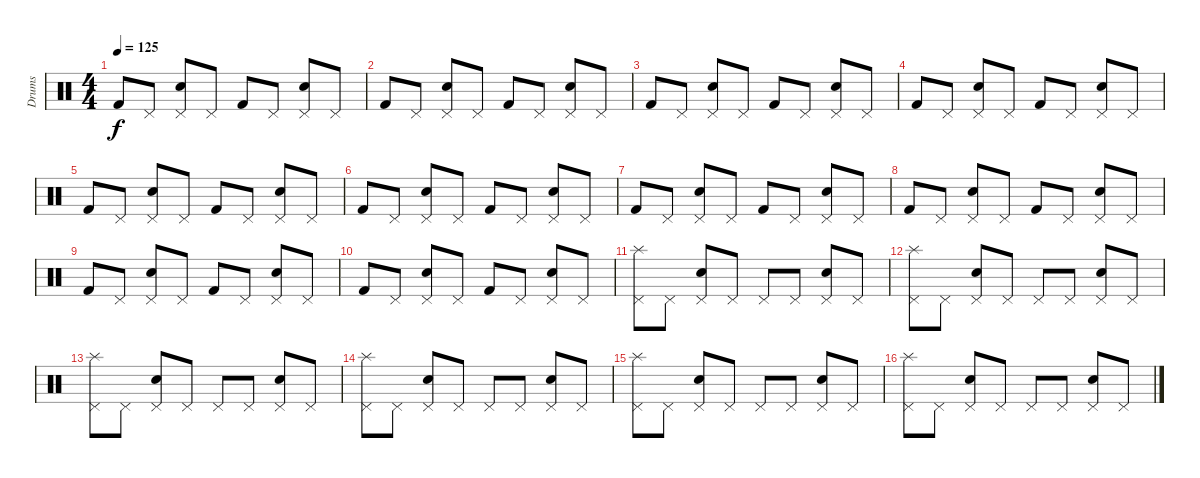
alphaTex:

\track ("Drums" "Drums") {instrument percussion}
\staff {score}
\articulation defaults
\ts (4 4)
\tempo 125
\clef neutral
\ks c "Kick (hit) 2".8{dy f} "Pedal Hi-Hat (hit)".8
("Pedal Hi-Hat (hit)" "Electric Snare (hit)").8 "Pedal Hi-Hat (hit)".8 "Kick (hit) 2".8 "Pedal Hi-Hat (hit)".8 ("Pedal Hi-Hat (hit)" "Electric Snare (hit)").8 "Pedal Hi-Hat (hit)".8 |
"Kick (hit) 2".8 "Pedal Hi-Hat (hit)".8 ("Pedal Hi-Hat (hit)" "Electric Snare (hit)").8 "Pedal Hi-Hat (hit)".8 "Kick (hit) 2".8 "Pedal Hi-Hat (hit)".8 ("Pedal Hi-Hat (hit)" "Electric Snare (hit)").8 "Pedal Hi-Hat (hit)".8 |
"Kick (hit) 2".8 "Pedal Hi-Hat (hit)".8 ("Pedal Hi-Hat (hit)" "Electric Snare (hit)").8 "Pedal Hi-Hat (hit)".8 "Kick (hit) 2".8 "Pedal Hi-Hat (hit)".8 ("Pedal Hi-Hat (hit)" "Electric Snare (hit)").8 "Pedal Hi-Hat (hit)".8 |
"Kick (hit) 2".8 "Pedal Hi-Hat (hit)".8 ("Pedal Hi-Hat (hit)" "Electric Snare (hit)").8 "Pedal Hi-Hat (hit)".8 "Kick (hit) 2".8 "Pedal Hi-Hat (hit)".8 ("Pedal Hi-Hat (hit)" "Electric Snare (hit)").8 "Pedal Hi-Hat (hit)".8 |
"Kick (hit) 2".8 "Pedal Hi-Hat (hit)".8 ("Pedal Hi-Hat (hit)" "Electric Snare (hit)").8 "Pedal Hi-Hat (hit)".8 "Kick (hit) 2".8 "Pedal Hi-Hat (hit)".8 ("Pedal Hi-Hat (hit)" "Electric Snare (hit)").8 "Pedal Hi-Hat (hit)".8 |
"Kick (hit) 2".8 "Pedal Hi-Hat (hit)".8 ("Pedal Hi-Hat (hit)" "Electric Snare (hit)").8 "Pedal Hi-Hat (hit)".8 "Kick (hit) 2".8 "Pedal Hi-Hat (hit)".8 ("Pedal Hi-Hat (hit)" "Electric Snare (hit)").8 "Pedal Hi-Hat (hit)".8 |
"Kick (hit) 2".8 "Pedal Hi-Hat (hit)".8 ("Pedal Hi-Hat (hit)" "Electric Snare (hit)").8 "Pedal Hi-Hat (hit)".8 "Kick (hit) 2".8 "Pedal Hi-Hat (hit)".8 ("Pedal Hi-Hat (hit)" "Electric Snare (hit)").8 "Pedal Hi-Hat (hit)".8 |
"Kick (hit) 2".8 "Pedal Hi-Hat (hit)".8 ("Pedal Hi-Hat (hit)" "Electric Snare (hit)").8 "Pedal Hi-Hat (hit)".8 "Kick (hit) 2".8 "Pedal Hi-Hat (hit)".8 ("Pedal Hi-Hat (hit)" "Electric Snare (hit)").8 "Pedal Hi-Hat (hit)".8 |
"Kick (hit) 2".8 "Pedal Hi-Hat (hit)".8 ("Pedal Hi-Hat (hit)" "Electric Snare (hit)").8 "Pedal Hi-Hat (hit)".8 "Kick (hit) 2".8 "Pedal Hi-Hat (hit)".8 ("Pedal Hi-Hat (hit)" "Electric Snare (hit)").8 "Pedal Hi-Hat (hit)".8 |
"Kick (hit) 2".8 "Pedal Hi-Hat (hit)".8 ("Pedal Hi-Hat (hit)" "Electric Snare (hit)").8 "Pedal Hi-Hat (hit)".8 "Kick (hit) 2".8 "Pedal Hi-Hat (hit)".8 ("Pedal Hi-Hat (hit)" "Electric Snare (hit)").8 "Pedal Hi-Hat (hit)".8 |
("Splash (hit)" "Pedal Hi-Hat (hit)").8 "Pedal Hi-Hat (hit)".8 ("Pedal Hi-Hat (hit)" "Electric Snare (hit)").8 "Pedal Hi-Hat (hit)".8 "Pedal Hi-Hat (hit)".8 "Pedal Hi-Hat (hit)".8 ("Pedal Hi-Hat (hit)" "Electric Snare (hit)").8 "Pedal Hi-Hat (hit)".8 |
("Splash (hit)" "Pedal Hi-Hat (hit)").8 "Pedal Hi-Hat (hit)".8 ("Pedal Hi-Hat (hit)" "Electric Snare (hit)").8 "Pedal Hi-Hat (hit)".8 "Pedal Hi-Hat (hit)".8 "Pedal Hi-Hat (hit)".8 ("Pedal Hi-Hat (hit)" "Electric Snare (hit)").8 "Pedal Hi-Hat (hit)".8 |
("Splash (hit)" "Pedal Hi-Hat (hit)").8 "Pedal Hi-Hat (hit)".8 ("Pedal Hi-Hat (hit)" "Electric Snare (hit)").8 "Pedal Hi-Hat (hit)".8 "Pedal Hi-Hat (hit)".8 "Pedal Hi-Hat (hit)".8 ("Pedal Hi-Hat (hit)" "Electric Snare (hit)").8 "Pedal Hi-Hat (hit)".8 |
("Splash (hit)" "Pedal Hi-Hat (hit)").8 "Pedal Hi-Hat (hit)".8 ("Pedal Hi-Hat (hit)" "Electric Snare (hit)").8 "Pedal Hi-Hat (hit)".8 "Pedal Hi-Hat (hit)".8 "Pedal Hi-Hat (hit)".8 ("Pedal Hi-Hat (hit)" "Electric Snare (hit)").8 "Pedal Hi-Hat (hit)".8 |
("Splash (hit)" "Pedal Hi-Hat (hit)").8 "Pedal Hi-Hat (hit)".8 ("Pedal Hi-Hat (hit)" "Electric Snare (hit)").8 "Pedal Hi-Hat (hit)".8 "Pedal Hi-Hat (hit)".8 "Pedal Hi-Hat (hit)".8 ("Pedal Hi-Hat (hit)" "Electric Snare (hit)").8 "Pedal Hi-Hat (hit)".8 |
("Splash (hit)" "Pedal Hi-Hat (hit)").8 "Pedal Hi-Hat (hit)".8 ("Pedal Hi-Hat (hit)" "Electric Snare (hit)").8 "Pedal Hi-Hat (hit)".8 "Pedal Hi-Hat (hit)".8 "Pedal Hi-Hat (hit)".8 ("Pedal Hi-Hat (hit)" "Electric Snare (hit)").8 "Pedal Hi-Hat (hit)".8
